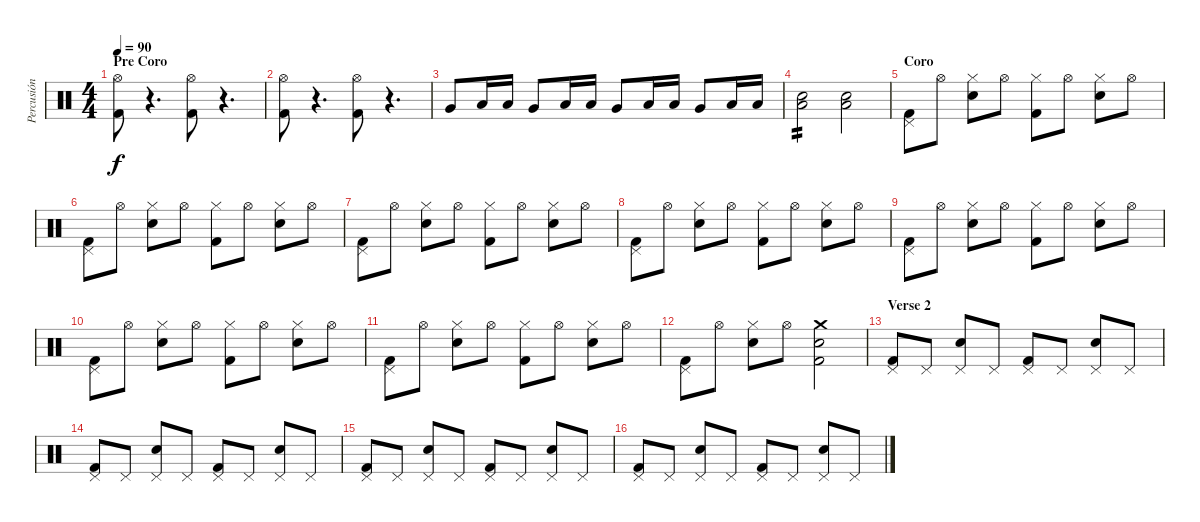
\track ("Percusión" "Percusión") {instrument percussion}
\staff {score}
\articulation defaults
\ts (4 4)
\section ("" "Pre Coro")
\tempo 90
\clef neutral
\ks c
("Kick (hit) 2" "Hi-Hat (open)").8{dy f} r.4{d} ("Kick (hit) 2" "Hi-Hat (open)").8 r.4{d} |
("Kick (hit) 2" "Hi-Hat (open)").8 r.4{d} ("Kick (hit) 2" "Hi-Hat (open)").8 r.4{d} |
"Very Low Tom (hit)".8 "Low Floor Tom (hit)".16 "Low Floor Tom (hit)".16 "Very Low Tom (hit)".8 "Low Floor Tom (hit)".16 "Low Floor Tom (hit)".16 "Very Low Tom (hit)".8 "Low Floor Tom (hit)".16 "Low Floor Tom (hit)".16 "Very Low Tom (hit)".8 "Low Floor Tom (hit)".16 "Low Floor Tom (hit)".16 |
("Low Floor Tom (hit)" "Snare (hit) 2").2{tp 2} ("Low Floor Tom (hit)" "Snare (hit) 2").2 |
\section ("" "Coro")
("Pedal Hi-Hat (hit)" "Kick (hit) 2").8 "Hi-Hat (open)".8 ("Hi-Hat (closed)" "Snare (hit) 2").8 "Hi-Hat (open)".8 ("Hi-Hat (closed)" "Kick (hit) 2").8 "Hi-Hat (open)".8 ("Hi-Hat (closed)" "Snare (hit) 2").8 "Hi-Hat (open)".8 |
("Pedal Hi-Hat (hit)" "Kick (hit) 2").8 "Hi-Hat (open)".8 ("Hi-Hat (closed)" "Snare (hit) 2").8 "Hi-Hat (open)".8 ("Hi-Hat (closed)" "Kick (hit) 2").8 "Hi-Hat (open)".8 ("Hi-Hat (closed)" "Snare (hit) 2").8 "Hi-Hat (open)".8 |
("Pedal Hi-Hat (hit)" "Kick (hit) 2").8 "Hi-Hat (open)".8 ("Hi-Hat (closed)" "Snare (hit) 2").8 "Hi-Hat (open)".8 ("Hi-Hat (closed)" "Kick (hit) 2").8 "Hi-Hat (open)".8 ("Hi-Hat (closed)" "Snare (hit) 2").8 "Hi-Hat (open)".8 |
("Pedal Hi-Hat (hit)" "Kick (hit) 2").8 "Hi-Hat (open)".8 ("Hi-Hat (closed)" "Snare (hit) 2").8 "Hi-Hat (open)".8 ("Hi-Hat (closed)" "Kick (hit) 2").8 "Hi-Hat (open)".8 ("Hi-Hat (closed)" "Snare (hit) 2").8 "Hi-Hat (open)".8 |
("Pedal Hi-Hat (hit)" "Kick (hit) 2").8 "Hi-Hat (open)".8 ("Hi-Hat (closed)" "Snare (hit) 2").8 "Hi-Hat (open)".8 ("Hi-Hat (closed)" "Kick (hit) 2").8 "Hi-Hat (open)".8 ("Hi-Hat (closed)" "Snare (hit) 2").8 "Hi-Hat (open)".8 |
("Pedal Hi-Hat (hit)" "Kick (hit) 2").8 "Hi-Hat (open)".8 ("Hi-Hat (closed)" "Snare (hit) 2").8 "Hi-Hat (open)".8 ("Hi-Hat (closed)" "Kick (hit) 2").8 "Hi-Hat (open)".8 ("Hi-Hat (closed)" "Snare (hit) 2").8 "Hi-Hat (open)".8 |
("Pedal Hi-Hat (hit)" "Kick (hit) 2").8 "Hi-Hat (open)".8 ("Hi-Hat (closed)" "Snare (hit) 2").8 "Hi-Hat (open)".8 ("Hi-Hat (closed)" "Kick (hit) 2").8 "Hi-Hat (open)".8 ("Hi-Hat (closed)" "Snare (hit) 2").8 "Hi-Hat (open)".8 |
("Pedal Hi-Hat (hit)" "Kick (hit) 2").8 "Hi-Hat (open)".8 ("Hi-Hat (closed)" "Snare (hit) 2").8 "Hi-Hat (open)".8 ("Kick (hit) 2" "Crash medium (hit)" "Snare (hit) 2").2 |
\section ("" "Verse 2")
("Pedal Hi-Hat (hit)" "Kick (hit) 2").8 "Pedal Hi-Hat (hit)".8 ("Pedal Hi-Hat (hit)" "Snare (hit) 2").8 "Pedal Hi-Hat (hit)".8 ("Pedal Hi-Hat (hit)" "Kick (hit) 2").8 "Pedal Hi-Hat (hit)".8 ("Pedal Hi-Hat (hit)" "Snare (hit) 2").8 "Pedal Hi-Hat (hit)".8 |
("Pedal Hi-Hat (hit)" "Kick (hit) 2").8 "Pedal Hi-Hat (hit)".8 ("Pedal Hi-Hat (hit)" "Snare (hit) 2").8 "Pedal Hi-Hat (hit)".8 ("Pedal Hi-Hat (hit)" "Kick (hit) 2").8 "Pedal Hi-Hat (hit)".8 ("Pedal Hi-Hat (hit)" "Snare (hit) 2").8 "Pedal Hi-Hat (hit)".8 |
("Pedal Hi-Hat (hit)" "Kick (hit) 2").8 "Pedal Hi-Hat (hit)".8 ("Pedal Hi-Hat (hit)" "Snare (hit) 2").8 "Pedal Hi-Hat (hit)".8 ("Pedal Hi-Hat (hit)" "Kick (hit) 2").8 "Pedal Hi-Hat (hit)".8 ("Pedal Hi-Hat (hit)" "Snare (hit) 2").8 "Pedal Hi-Hat (hit)".8 |
("Pedal Hi-Hat (hit)" "Kick (hit) 2").8 "Pedal Hi-Hat (hit)".8 ("Pedal Hi-Hat (hit)" "Snare (hit) 2").8 "Pedal Hi-Hat (hit)".8 ("Pedal Hi-Hat (hit)" "Kick (hit) 2").8 "Pedal Hi-Hat (hit)".8 ("Pedal Hi-Hat (hit)" "Snare (hit) 2").8 "Pedal Hi-Hat (hit)".8
